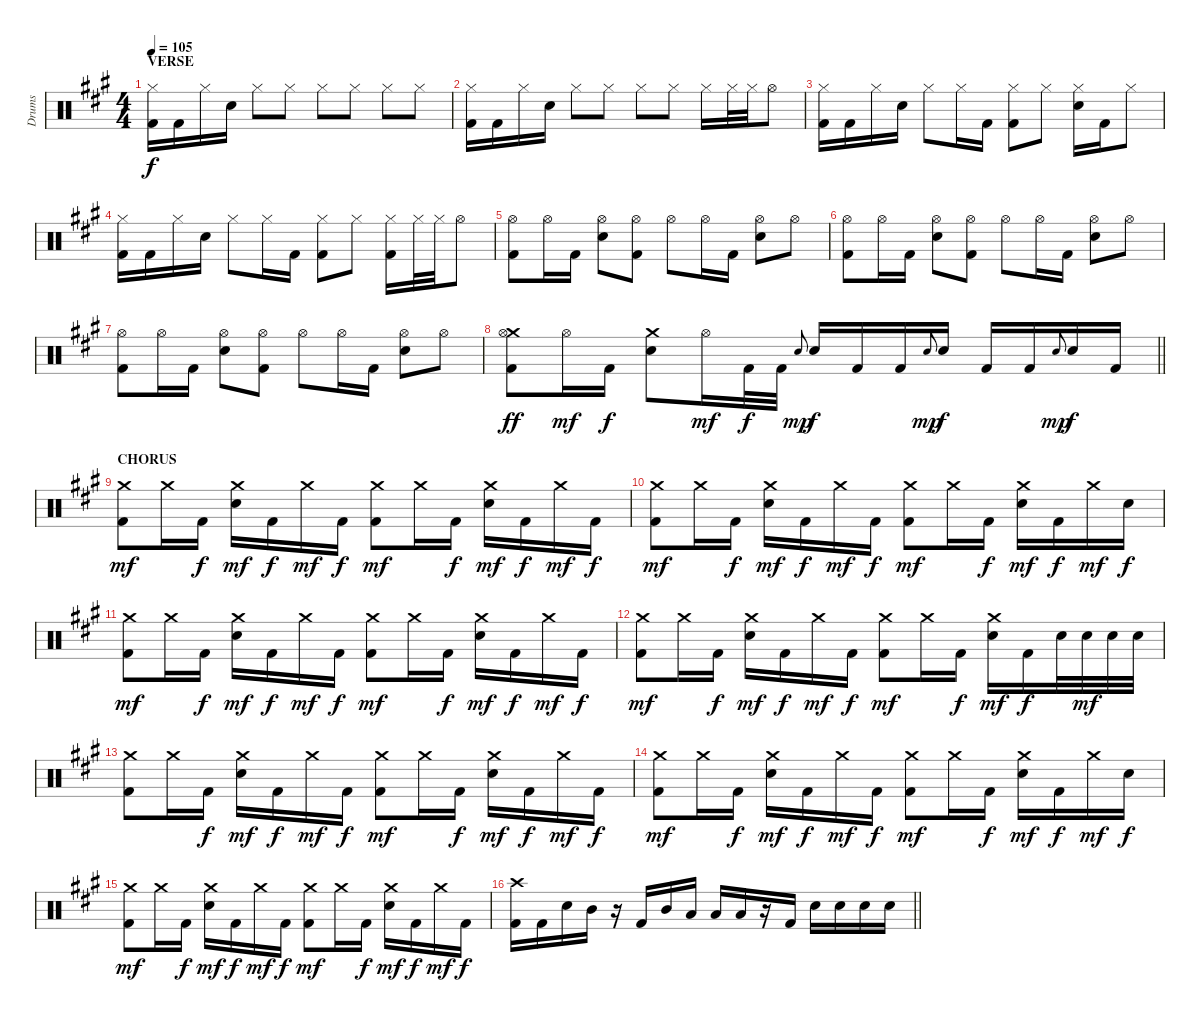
\track ("Drums" "Drums") {instrument percussion}
\staff {score}
\articulation defaults
\ts (4 4)
\section ("" "VERSE")
\tempo 105
\clef neutral
\ks f#minor
("Hi-Hat (closed)" "Kick (hit) 2").16{dy f} "Kick (hit) 2".16 "Hi-Hat (closed)".16 "Electric Snare (hit)".16 "Hi-Hat (closed)".8 "Hi-Hat (closed)".8 "Hi-Hat (closed)".8 "Hi-Hat (closed)".8 "Hi-Hat (closed)".8 "Hi-Hat (closed)".8 |
("Hi-Hat (closed)" "Kick (hit) 2").16 "Kick (hit) 2".16 "Hi-Hat (closed)".16 "Electric Snare (hit)".16 "Hi-Hat (closed)".8 "Hi-Hat (closed)".8 "Hi-Hat (closed)".8 "Hi-Hat (closed)".8 "Hi-Hat (closed)".16 "Hi-Hat (closed)".32 "Hi-Hat (closed)".32 "Hi-Hat (open)".8 |
("Hi-Hat (closed)" "Kick (hit) 2").16 "Kick (hit) 2".16 "Hi-Hat (closed)".16 "Electric Snare (hit)".16 "Hi-Hat (closed)".8 "Hi-Hat (closed)".16 "Kick (hit) 2".16 ("Hi-Hat (closed)" "Kick (hit) 2").8 "Hi-Hat (closed)".8 ("Electric Snare (hit)" "Hi-Hat (closed)").16 "Kick (hit) 2".16 "Hi-Hat (closed)".8 |
("Hi-Hat (closed)" "Kick (hit) 2").16 "Kick (hit) 2".16 "Hi-Hat (closed)".16 "Electric Snare (hit)".16 "Hi-Hat (closed)".8 "Hi-Hat (closed)".16 "Kick (hit) 2".16 ("Hi-Hat (closed)" "Kick (hit) 2").8 "Hi-Hat (closed)".8 ("Hi-Hat (closed)" "Kick (hit) 2").16 "Hi-Hat (closed)".32 "Hi-Hat (closed)".32 "Hi-Hat (open)".8 |
("Hi-Hat (open)" "Kick (hit) 2").8 "Hi-Hat (open)".16 "Kick (hit) 2".16 ("Electric Snare (hit)" "Hi-Hat (open)").8 ("Hi-Hat (open)" "Kick (hit) 2").8 "Hi-Hat (open)".8 "Hi-Hat (open)".16 "Kick (hit) 2".16 ("Electric Snare (hit)" "Hi-Hat (open)").8 "Hi-Hat (open)".8 |
("Hi-Hat (open)" "Kick (hit) 2").8 "Hi-Hat (open)".16 "Kick (hit) 2".16 ("Electric Snare (hit)" "Hi-Hat (open)").8 ("Hi-Hat (open)" "Kick (hit) 2").8 "Hi-Hat (open)".8 "Hi-Hat (open)".16 "Kick (hit) 2".16 ("Electric Snare (hit)" "Hi-Hat (open)").8 "Hi-Hat (open)".8 |
("Hi-Hat (open)" "Kick (hit) 2").8 "Hi-Hat (open)".16 "Kick (hit) 2".16 ("Electric Snare (hit)" "Hi-Hat (open)").8 ("Hi-Hat (open)" "Kick (hit) 2").8 "Hi-Hat (open)".8 "Hi-Hat (open)".16 "Kick (hit) 2".16 ("Electric Snare (hit)" "Hi-Hat (open)").8 "Hi-Hat (open)".8 |
\barLineRight lightlight
("Crash medium (hit)" "Hi-Hat (open)" "Kick (hit) 2").8{dy ff} "Hi-Hat (open)".16{dy mf} "Kick (hit) 2".16{dy f} ("Electric Snare (hit)" "Crash medium (hit)").8 "Hi-Hat (open)".16{dy mf} "Kick (hit) 2".32{dy f} "Kick (hit) 2".32 "Electric Snare (hit)".8{gr onbeat dy mp} "Electric Snare (hit)".16{dy f} "Kick (hit) 2".16 "Kick (hit) 2".16 "Electric Snare (hit)".8{gr onbeat dy mp} "Electric Snare (hit)".16{dy f} "Kick (hit) 2".16 "Kick (hit) 2".16 "Electric Snare (hit)".8{gr onbeat dy mp} "Electric Snare (hit)".16{dy f} "Kick (hit) 2".16 |
\section ("" "CHORUS")
("Crash medium (hit)" "Kick (hit) 2").8{dy mf} "Crash medium (hit)".16 "Kick (hit) 2".16{dy f} ("Electric Snare (hit)" "Crash medium (hit)").16{dy mf} "Kick (hit) 2".16{dy f} "Crash medium (hit)".16{dy mf} "Kick (hit) 2".16{dy f} ("Crash medium (hit)" "Kick (hit) 2").8{dy mf} "Crash medium (hit)".16 "Kick (hit) 2".16{dy f} ("Electric Snare (hit)" "Crash medium (hit)").16{dy mf} "Kick (hit) 2".16{dy f} "Crash medium (hit)".16{dy mf} "Kick (hit) 2".16{dy f} |
("Crash medium (hit)" "Kick (hit) 2").8{dy mf} "Crash medium (hit)".16 "Kick (hit) 2".16{dy f} ("Electric Snare (hit)" "Crash medium (hit)").16{dy mf} "Kick (hit) 2".16{dy f} "Crash medium (hit)".16{dy mf} "Kick (hit) 2".16{dy f} ("Crash medium (hit)" "Kick (hit) 2").8{dy mf} "Crash medium (hit)".16 "Kick (hit) 2".16{dy f} ("Electric Snare (hit)" "Crash medium (hit)").16{dy mf} "Kick (hit) 2".16{dy f} "Crash medium (hit)".16{dy mf} "Electric Snare (hit)".16{dy f} |
("Crash medium (hit)" "Kick (hit) 2").8{dy mf} "Crash medium (hit)".16 "Kick (hit) 2".16{dy f} ("Electric Snare (hit)" "Crash medium (hit)").16{dy mf} "Kick (hit) 2".16{dy f} "Crash medium (hit)".16{dy mf} "Kick (hit) 2".16{dy f} ("Crash medium (hit)" "Kick (hit) 2").8{dy mf} "Crash medium (hit)".16 "Kick (hit) 2".16{dy f} ("Electric Snare (hit)" "Crash medium (hit)").16{dy mf} "Kick (hit) 2".16{dy f} "Crash medium (hit)".16{dy mf} "Kick (hit) 2".16{dy f} |
("Crash medium (hit)" "Kick (hit) 2").8{dy mf} "Crash medium (hit)".16 "Kick (hit) 2".16{dy f} ("Electric Snare (hit)" "Crash medium (hit)").16{dy mf} "Kick (hit) 2".16{dy f} "Crash medium (hit)".16{dy mf} "Kick (hit) 2".16{dy f} ("Crash medium (hit)" "Kick (hit) 2").8{dy mf} "Crash medium (hit)".16 "Kick (hit) 2".16{dy f} ("Electric Snare (hit)" "Crash medium (hit)").16{dy mf} "Kick (hit) 2".16{dy f} "Electric Snare (hit)".32 "Electric Snare (hit)".32{dy mf} "Electric Snare (hit)".32 "Electric Snare (hit)".32 |
("Crash medium (hit)" "Kick (hit) 2").8 "Crash medium (hit)".16 "Kick (hit) 2".16{dy f} ("Electric Snare (hit)" "Crash medium (hit)").16{dy mf} "Kick (hit) 2".16{dy f} "Crash medium (hit)".16{dy mf} "Kick (hit) 2".16{dy f} ("Crash medium (hit)" "Kick (hit) 2").8{dy mf} "Crash medium (hit)".16 "Kick (hit) 2".16{dy f} ("Electric Snare (hit)" "Crash medium (hit)").16{dy mf} "Kick (hit) 2".16{dy f} "Crash medium (hit)".16{dy mf} "Kick (hit) 2".16{dy f} |
("Crash medium (hit)" "Kick (hit) 2").8{dy mf} "Crash medium (hit)".16 "Kick (hit) 2".16{dy f} ("Electric Snare (hit)" "Crash medium (hit)").16{dy mf} "Kick (hit) 2".16{dy f} "Crash medium (hit)".16{dy mf} "Kick (hit) 2".16{dy f} ("Crash medium (hit)" "Kick (hit) 2").8{dy mf} "Crash medium (hit)".16 "Kick (hit) 2".16{dy f} ("Electric Snare (hit)" "Crash medium (hit)").16{dy mf} "Kick (hit) 2".16{dy f} "Crash medium (hit)".16{dy mf} "Electric Snare (hit)".16{dy f} |
("Crash medium (hit)" "Kick (hit) 2").8{dy mf} "Crash medium (hit)".16 "Kick (hit) 2".16{dy f} ("Electric Snare (hit)" "Crash medium (hit)").16{dy mf} "Kick (hit) 2".16{dy f} "Crash medium (hit)".16{dy mf} "Kick (hit) 2".16{dy f} ("Crash medium (hit)" "Kick (hit) 2").8{dy mf} "Crash medium (hit)".16 "Kick (hit) 2".16{dy f} ("Electric Snare (hit)" "Crash medium (hit)").16{dy mf} "Kick (hit) 2".16{dy f} "Crash medium (hit)".16{dy mf} "Kick (hit) 2".16{dy f} |
\barLineRight lightlight
("Crash high (hit)" "Kick (hit) 2").16 "Kick (hit) 2".16 "Electric Snare (hit)".16 "Mid Tom (hit)".16 r.16 "Kick (hit) 2".16 "Mid Tom (hit)".16 "Low Tom (hit)".16 "Low Tom (hit)".16 "Low Tom (hit)".16 r.16 "Kick (hit) 2".16 "Electric Snare (hit)".16 "Electric Snare (hit)".16 "Electric Snare (hit)".16 "Electric Snare (hit)".16
